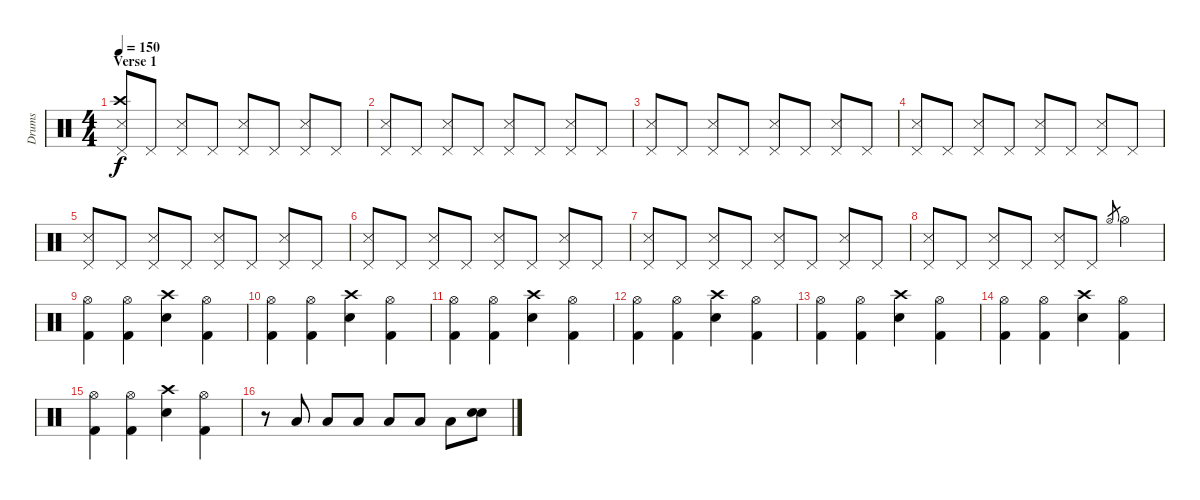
\track ("Drums" "Drums") {instrument percussion}
\staff {score}
\articulation defaults
\ts (4 4)
\section ("" "Verse 1")
\tempo 150
\clef neutral
\ks c
("Snare (side stick) 3" "Crash high (hit)" "Pedal Hi-Hat (hit)").8{dy f} "Pedal Hi-Hat (hit)".8 ("Snare (side stick) 3" "Pedal Hi-Hat (hit)").8 "Pedal Hi-Hat (hit)".8 ("Snare (side stick) 3" "Pedal Hi-Hat (hit)").8 "Pedal Hi-Hat (hit)".8 ("Snare (side stick) 3" "Pedal Hi-Hat (hit)").8 "Pedal Hi-Hat (hit)".8 |
("Snare (side stick) 3" "Pedal Hi-Hat (hit)").8 "Pedal Hi-Hat (hit)".8 ("Snare (side stick) 3" "Pedal Hi-Hat (hit)").8 "Pedal Hi-Hat (hit)".8 ("Snare (side stick) 3" "Pedal Hi-Hat (hit)").8 "Pedal Hi-Hat (hit)".8 ("Snare (side stick) 3" "Pedal Hi-Hat (hit)").8 "Pedal Hi-Hat (hit)".8 |
("Snare (side stick) 3" "Pedal Hi-Hat (hit)").8 "Pedal Hi-Hat (hit)".8 ("Snare (side stick) 3" "Pedal Hi-Hat (hit)").8 "Pedal Hi-Hat (hit)".8 ("Snare (side stick) 3" "Pedal Hi-Hat (hit)").8 "Pedal Hi-Hat (hit)".8 ("Snare (side stick) 3" "Pedal Hi-Hat (hit)").8 "Pedal Hi-Hat (hit)".8 |
("Snare (side stick) 3" "Pedal Hi-Hat (hit)").8 "Pedal Hi-Hat (hit)".8 ("Snare (side stick) 3" "Pedal Hi-Hat (hit)").8 "Pedal Hi-Hat (hit)".8 ("Snare (side stick) 3" "Pedal Hi-Hat (hit)").8 "Pedal Hi-Hat (hit)".8 ("Snare (side stick) 3" "Pedal Hi-Hat (hit)").8 "Pedal Hi-Hat (hit)".8 |
("Snare (side stick) 3" "Pedal Hi-Hat (hit)").8 "Pedal Hi-Hat (hit)".8 ("Snare (side stick) 3" "Pedal Hi-Hat (hit)").8 "Pedal Hi-Hat (hit)".8 ("Snare (side stick) 3" "Pedal Hi-Hat (hit)").8 "Pedal Hi-Hat (hit)".8 ("Snare (side stick) 3" "Pedal Hi-Hat (hit)").8 "Pedal Hi-Hat (hit)".8 |
("Snare (side stick) 3" "Pedal Hi-Hat (hit)").8 "Pedal Hi-Hat (hit)".8 ("Snare (side stick) 3" "Pedal Hi-Hat (hit)").8 "Pedal Hi-Hat (hit)".8 ("Snare (side stick) 3" "Pedal Hi-Hat (hit)").8 "Pedal Hi-Hat (hit)".8 ("Snare (side stick) 3" "Pedal Hi-Hat (hit)").8 "Pedal Hi-Hat (hit)".8 |
("Snare (side stick) 3" "Pedal Hi-Hat (hit)").8 "Pedal Hi-Hat (hit)".8 ("Snare (side stick) 3" "Pedal Hi-Hat (hit)").8 "Pedal Hi-Hat (hit)".8 ("Snare (side stick) 3" "Pedal Hi-Hat (hit)").8 "Pedal Hi-Hat (hit)".8 ("Snare (side stick) 3" "Pedal Hi-Hat (hit)").8 "Pedal Hi-Hat (hit)".8 |
("Snare (side stick) 3" "Pedal Hi-Hat (hit)").8 "Pedal Hi-Hat (hit)".8 ("Snare (side stick) 3" "Pedal Hi-Hat (hit)").8 "Pedal Hi-Hat (hit)".8 ("Snare (side stick) 3" "Pedal Hi-Hat (hit)").8 "Pedal Hi-Hat (hit)".8 "Hi-Hat (open)".8{gr} "Hi-Hat (open)".4 |
("Kick (hit) 2" "Hi-Hat (open)").4 ("Kick (hit) 2" "Hi-Hat (open)").4 ("Electric Snare (hit)" "Crash high (hit)").4 ("Kick (hit) 2" "Hi-Hat (open)").4 |
("Kick (hit) 2" "Hi-Hat (open)").4 ("Kick (hit) 2" "Hi-Hat (open)").4 ("Electric Snare (hit)" "Crash high (hit)").4 ("Kick (hit) 2" "Hi-Hat (open)").4 |
("Kick (hit) 2" "Hi-Hat (open)").4 ("Kick (hit) 2" "Hi-Hat (open)").4 ("Electric Snare (hit)" "Crash high (hit)").4 ("Kick (hit) 2" "Hi-Hat (open)").4 |
("Kick (hit) 2" "Hi-Hat (open)").4 ("Kick (hit) 2" "Hi-Hat (open)").4 ("Electric Snare (hit)" "Crash high (hit)").4 ("Kick (hit) 2" "Hi-Hat (open)").4 |
("Kick (hit) 2" "Hi-Hat (open)").4 ("Kick (hit) 2" "Hi-Hat (open)").4 ("Electric Snare (hit)" "Crash high (hit)").4 ("Kick (hit) 2" "Hi-Hat (open)").4 |
("Kick (hit) 2" "Hi-Hat (open)").4 ("Kick (hit) 2" "Hi-Hat (open)").4 ("Electric Snare (hit)" "Crash high (hit)").4 ("Kick (hit) 2" "Hi-Hat (open)").4 |
("Kick (hit) 2" "Hi-Hat (open)").4 ("Kick (hit) 2" "Hi-Hat (open)").4 ("Electric Snare (hit)" "Crash high (hit)").4 ("Kick (hit) 2" "Hi-Hat (open)").4 |
r.8 "Low Floor Tom (hit)".8 "Low Floor Tom (hit)".8 "Low Floor Tom (hit)".8 "Low Floor Tom (hit)".8 "Low Floor Tom (hit)".8 "Low Floor Tom (hit)".8 ("Electric Snare (hit)" "Electric Snare (hit)").8
